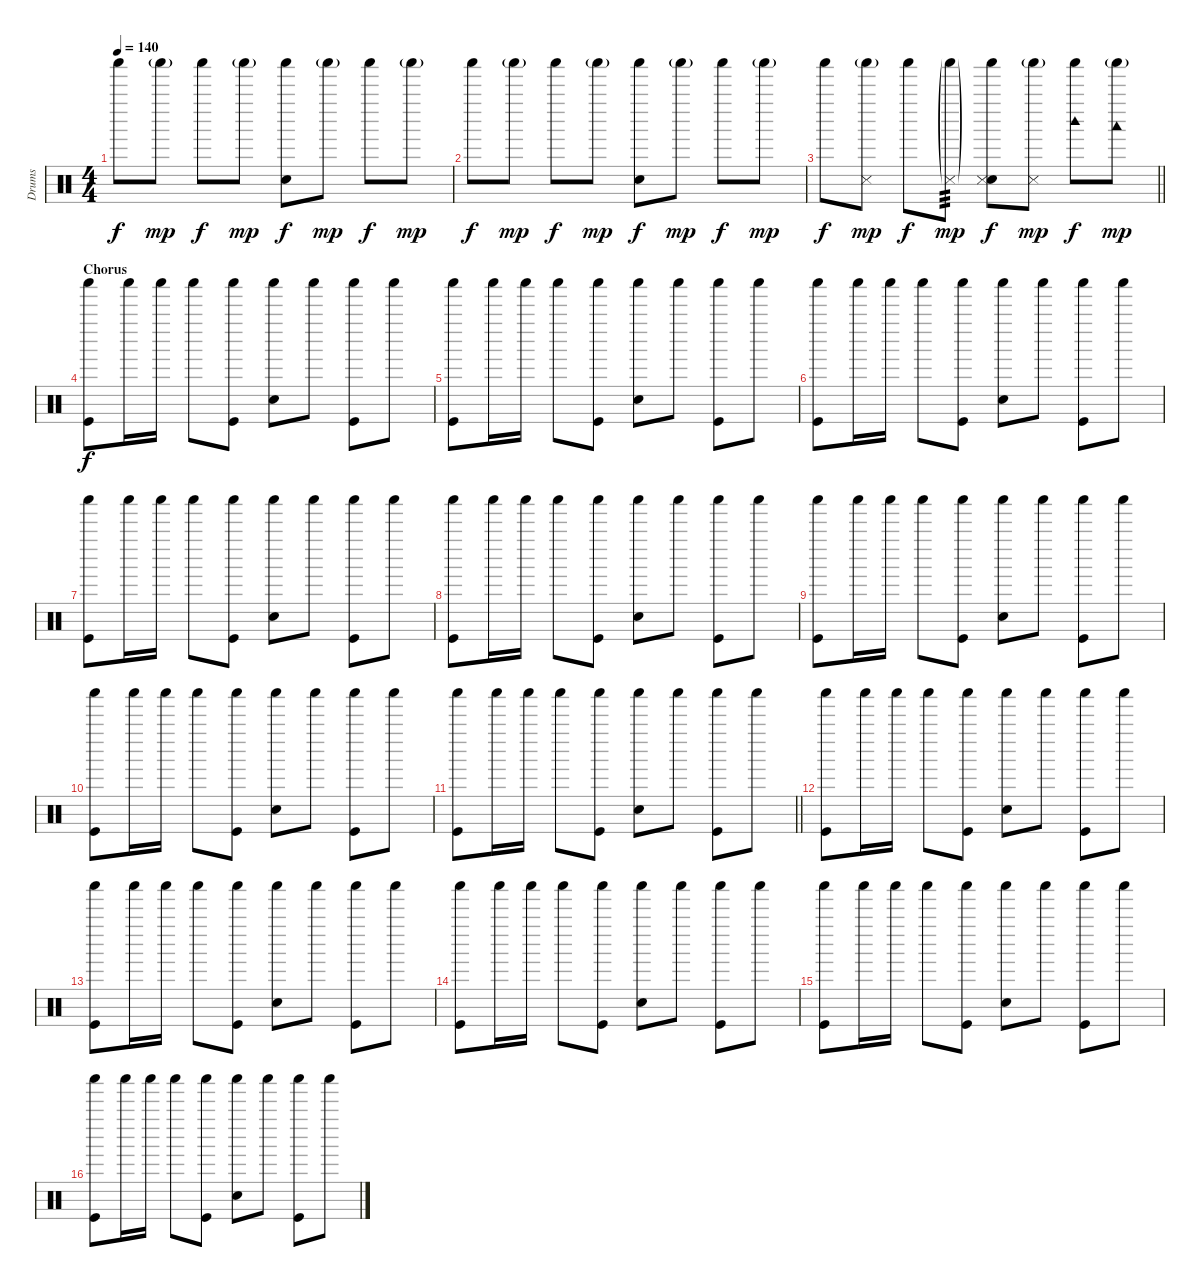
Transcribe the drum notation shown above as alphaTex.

\track ("Drums" "Drums") {instrument percussion}
\staff {score}
\articulation defaults
\ts (4 4)
\tempo 140
\clef neutral
\ks c "Shaker (hit)".8{dy f} "Shaker (hit)"{g}.8{dy mp} "Shaker (hit)".8{dy f} "Shaker (hit)"{g}.8{dy mp}
("Shaker (hit)" "Hand Clap (hit)").8{dy f} "Shaker (hit)"{g}.8{dy mp} "Shaker (hit)".8{dy f} "Shaker (hit)"{g}.8{dy mp} |
"Shaker (hit)".8{dy f} "Shaker (hit)"{g}.8{dy mp} "Shaker (hit)".8{dy f} "Shaker (hit)"{g}.8{dy mp} ("Shaker (hit)" "Hand Clap (hit)").8{dy f} "Shaker (hit)"{g}.8{dy mp} "Shaker (hit)".8{dy f} "Shaker (hit)"{g}.8{dy mp} |
\barLineRight lightlight "Shaker (hit)".8{dy f}
("Shaker (hit)"{g} "Snare (side stick) 3").8{dy mp} "Shaker (hit)".8{dy f} ("Shaker (hit)"{g} "Snare (side stick) 3"{g}).8{tp 3 dy mp} ("Shaker (hit)" "Hand Clap (hit)" "Snare (side stick) 3").8{dy f} ("Shaker (hit)"{g} "Snare (side stick) 3").8{dy mp} ("Shaker (hit)" "Woodblock high (hit)").8{dy f} ("Shaker (hit)"{g} "Woodblock low (hit)").8{dy mp} |
\section ("" "Chorus")
("Shaker (hit)" "Kick (hit)").8{dy f} "Shaker (hit)".16 "Shaker (hit)".16 "Shaker (hit)".8 ("Shaker (hit)" "Kick (hit)").8 ("Shaker (hit)" "Hand Clap (hit)").8 "Shaker (hit)".8 ("Shaker (hit)" "Kick (hit)").8 "Shaker (hit)".8 |
("Shaker (hit)" "Kick (hit)").8 "Shaker (hit)".16 "Shaker (hit)".16 "Shaker (hit)".8 ("Shaker (hit)" "Kick (hit)").8 ("Shaker (hit)" "Hand Clap (hit)").8 "Shaker (hit)".8 ("Shaker (hit)" "Kick (hit)").8 "Shaker (hit)".8 |
("Shaker (hit)" "Kick (hit)").8 "Shaker (hit)".16 "Shaker (hit)".16 "Shaker (hit)".8 ("Shaker (hit)" "Kick (hit)").8 ("Shaker (hit)" "Hand Clap (hit)").8 "Shaker (hit)".8 ("Shaker (hit)" "Kick (hit)").8 "Shaker (hit)".8 |
("Shaker (hit)" "Kick (hit)").8 "Shaker (hit)".16 "Shaker (hit)".16 "Shaker (hit)".8 ("Shaker (hit)" "Kick (hit)").8 ("Shaker (hit)" "Hand Clap (hit)").8 "Shaker (hit)".8 ("Shaker (hit)" "Kick (hit)").8 "Shaker (hit)".8 |
("Shaker (hit)" "Kick (hit)").8 "Shaker (hit)".16 "Shaker (hit)".16 "Shaker (hit)".8 ("Shaker (hit)" "Kick (hit)").8 ("Shaker (hit)" "Hand Clap (hit)").8 "Shaker (hit)".8 ("Shaker (hit)" "Kick (hit)").8 "Shaker (hit)".8 |
("Shaker (hit)" "Kick (hit)").8 "Shaker (hit)".16 "Shaker (hit)".16 "Shaker (hit)".8 ("Shaker (hit)" "Kick (hit)").8 ("Shaker (hit)" "Hand Clap (hit)").8 "Shaker (hit)".8 ("Shaker (hit)" "Kick (hit)").8 "Shaker (hit)".8 |
("Shaker (hit)" "Kick (hit)").8 "Shaker (hit)".16 "Shaker (hit)".16 "Shaker (hit)".8 ("Shaker (hit)" "Kick (hit)").8 ("Shaker (hit)" "Hand Clap (hit)").8 "Shaker (hit)".8 ("Shaker (hit)" "Kick (hit)").8 "Shaker (hit)".8 |
\barLineRight lightlight
("Shaker (hit)" "Kick (hit)").8 "Shaker (hit)".16 "Shaker (hit)".16 "Shaker (hit)".8 ("Shaker (hit)" "Kick (hit)").8 ("Shaker (hit)" "Hand Clap (hit)").8 "Shaker (hit)".8 ("Shaker (hit)" "Kick (hit)").8 "Shaker (hit)".8 |
("Shaker (hit)" "Kick (hit)").8 "Shaker (hit)".16 "Shaker (hit)".16 "Shaker (hit)".8 ("Shaker (hit)" "Kick (hit)").8 ("Shaker (hit)" "Hand Clap (hit)").8 "Shaker (hit)".8 ("Shaker (hit)" "Kick (hit)").8 "Shaker (hit)".8 |
("Shaker (hit)" "Kick (hit)").8 "Shaker (hit)".16 "Shaker (hit)".16 "Shaker (hit)".8 ("Shaker (hit)" "Kick (hit)").8 ("Shaker (hit)" "Hand Clap (hit)").8 "Shaker (hit)".8 ("Shaker (hit)" "Kick (hit)").8 "Shaker (hit)".8 |
("Shaker (hit)" "Kick (hit)").8 "Shaker (hit)".16 "Shaker (hit)".16 "Shaker (hit)".8 ("Shaker (hit)" "Kick (hit)").8 ("Shaker (hit)" "Hand Clap (hit)").8 "Shaker (hit)".8 ("Shaker (hit)" "Kick (hit)").8 "Shaker (hit)".8 |
("Shaker (hit)" "Kick (hit)").8 "Shaker (hit)".16 "Shaker (hit)".16 "Shaker (hit)".8 ("Shaker (hit)" "Kick (hit)").8 ("Shaker (hit)" "Hand Clap (hit)").8 "Shaker (hit)".8 ("Shaker (hit)" "Kick (hit)").8 "Shaker (hit)".8 |
("Shaker (hit)" "Kick (hit)").8 "Shaker (hit)".16 "Shaker (hit)".16 "Shaker (hit)".8 ("Shaker (hit)" "Kick (hit)").8 ("Shaker (hit)" "Hand Clap (hit)").8 "Shaker (hit)".8 ("Shaker (hit)" "Kick (hit)").8 "Shaker (hit)".8
